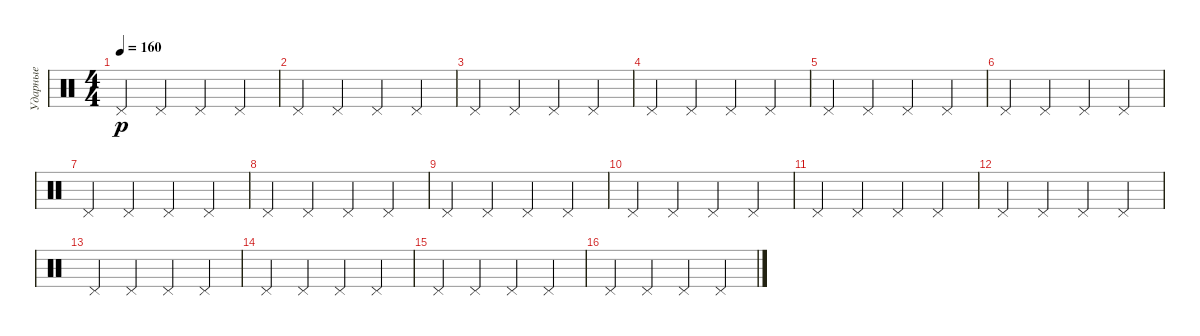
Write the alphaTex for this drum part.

\track ("Ударные" "Ударные") {instrument percussion}
\staff {score}
\articulation defaults
\ts (4 4)
\tempo 160
\clef neutral
\ks c "Pedal Hi-Hat (hit)".4{dy p} "Pedal Hi-Hat (hit)".4 "Pedal Hi-Hat (hit)".4 "Pedal Hi-Hat (hit)".4
|
"Pedal Hi-Hat (hit)".4 "Pedal Hi-Hat (hit)".4 "Pedal Hi-Hat (hit)".4 "Pedal Hi-Hat (hit)".4 |
"Pedal Hi-Hat (hit)".4 "Pedal Hi-Hat (hit)".4 "Pedal Hi-Hat (hit)".4 "Pedal Hi-Hat (hit)".4 |
"Pedal Hi-Hat (hit)".4 "Pedal Hi-Hat (hit)".4 "Pedal Hi-Hat (hit)".4 "Pedal Hi-Hat (hit)".4 |
"Pedal Hi-Hat (hit)".4 "Pedal Hi-Hat (hit)".4 "Pedal Hi-Hat (hit)".4 "Pedal Hi-Hat (hit)".4 |
"Pedal Hi-Hat (hit)".4 "Pedal Hi-Hat (hit)".4 "Pedal Hi-Hat (hit)".4 "Pedal Hi-Hat (hit)".4 |
"Pedal Hi-Hat (hit)".4 "Pedal Hi-Hat (hit)".4 "Pedal Hi-Hat (hit)".4 "Pedal Hi-Hat (hit)".4 |
"Pedal Hi-Hat (hit)".4 "Pedal Hi-Hat (hit)".4 "Pedal Hi-Hat (hit)".4 "Pedal Hi-Hat (hit)".4 |
"Pedal Hi-Hat (hit)".4 "Pedal Hi-Hat (hit)".4 "Pedal Hi-Hat (hit)".4 "Pedal Hi-Hat (hit)".4 |
"Pedal Hi-Hat (hit)".4 "Pedal Hi-Hat (hit)".4 "Pedal Hi-Hat (hit)".4 "Pedal Hi-Hat (hit)".4 |
"Pedal Hi-Hat (hit)".4 "Pedal Hi-Hat (hit)".4 "Pedal Hi-Hat (hit)".4 "Pedal Hi-Hat (hit)".4 |
"Pedal Hi-Hat (hit)".4 "Pedal Hi-Hat (hit)".4 "Pedal Hi-Hat (hit)".4 "Pedal Hi-Hat (hit)".4 |
"Pedal Hi-Hat (hit)".4 "Pedal Hi-Hat (hit)".4 "Pedal Hi-Hat (hit)".4 "Pedal Hi-Hat (hit)".4 |
"Pedal Hi-Hat (hit)".4 "Pedal Hi-Hat (hit)".4 "Pedal Hi-Hat (hit)".4 "Pedal Hi-Hat (hit)".4 |
"Pedal Hi-Hat (hit)".4 "Pedal Hi-Hat (hit)".4 "Pedal Hi-Hat (hit)".4 "Pedal Hi-Hat (hit)".4 |
"Pedal Hi-Hat (hit)".4 "Pedal Hi-Hat (hit)".4 "Pedal Hi-Hat (hit)".4 "Pedal Hi-Hat (hit)".4
